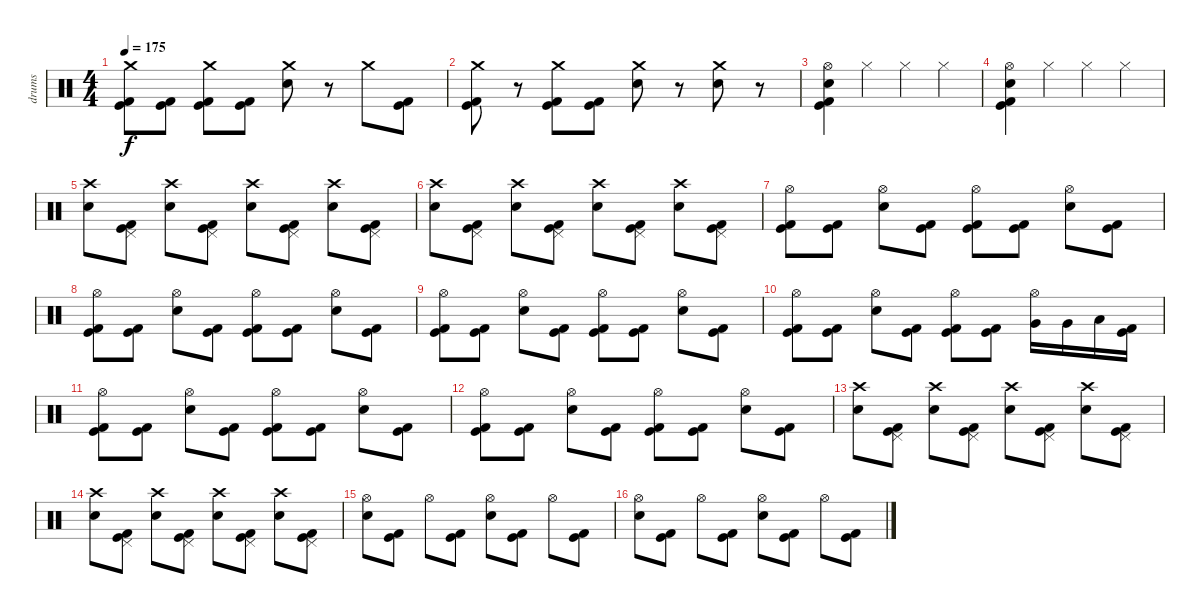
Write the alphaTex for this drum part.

\track ("drums" "drums") {instrument percussion}
\staff {score}
\articulation defaults
\ts (4 4)
\tempo 175
\clef neutral
\ks c
("Kick (hit)" "Kick (hit) 2" "Crash medium (hit)").8{dy f} ("Kick (hit)" "Kick (hit) 2").8 ("Kick (hit)" "Kick (hit) 2" "Crash medium (hit)").8 ("Kick (hit)" "Kick (hit) 2").8 ("Electric Snare (hit)" "Crash medium (hit)").8 r.8 "Crash medium (hit)".8 ("Kick (hit)" "Kick (hit) 2").8 |
("Kick (hit)" "Kick (hit) 2" "Crash medium (hit)").8 r.8 ("Kick (hit)" "Kick (hit) 2" "Crash medium (hit)").8 ("Kick (hit)" "Kick (hit) 2").8 ("Electric Snare (hit)" "Crash medium (hit)").8 r.8 ("Electric Snare (hit)" "Crash medium (hit)").8 r.8 |
("Kick (hit)" "Kick (hit) 2" "Electric Snare (hit)" "Hi-Hat (open)").4 "Hi-Hat (closed)".4 "Hi-Hat (closed)".4 "Hi-Hat (closed)".4 |
("Kick (hit)" "Kick (hit) 2" "Electric Snare (hit)" "Hi-Hat (open)").4 "Hi-Hat (closed)".4 "Hi-Hat (closed)".4 "Hi-Hat (closed)".4 |
("Electric Snare (hit)" "Crash high (hit)").8 ("Kick (hit)" "Kick (hit) 2" "Pedal Hi-Hat (hit)").8 ("Electric Snare (hit)" "Crash high (hit)").8 ("Kick (hit)" "Kick (hit) 2" "Pedal Hi-Hat (hit)").8 ("Electric Snare (hit)" "Crash high (hit)").8 ("Kick (hit)" "Kick (hit) 2" "Pedal Hi-Hat (hit)").8 ("Electric Snare (hit)" "Crash high (hit)").8 ("Kick (hit)" "Kick (hit) 2" "Pedal Hi-Hat (hit)").8 |
("Electric Snare (hit)" "Crash high (hit)").8 ("Kick (hit)" "Kick (hit) 2" "Pedal Hi-Hat (hit)").8 ("Electric Snare (hit)" "Crash high (hit)").8 ("Kick (hit)" "Kick (hit) 2" "Pedal Hi-Hat (hit)").8 ("Electric Snare (hit)" "Crash high (hit)").8 ("Kick (hit)" "Kick (hit) 2" "Pedal Hi-Hat (hit)").8 ("Electric Snare (hit)" "Crash high (hit)").8 ("Kick (hit)" "Kick (hit) 2" "Pedal Hi-Hat (hit)").8 |
("Kick (hit)" "Kick (hit) 2" "Hi-Hat (open)").8 ("Kick (hit)" "Kick (hit) 2").8 ("Electric Snare (hit)" "Hi-Hat (open)").8 ("Kick (hit)" "Kick (hit) 2").8 ("Kick (hit)" "Kick (hit) 2" "Hi-Hat (open)").8 ("Kick (hit)" "Kick (hit) 2").8 ("Electric Snare (hit)" "Hi-Hat (open)").8 ("Kick (hit)" "Kick (hit) 2").8 |
("Kick (hit)" "Kick (hit) 2" "Hi-Hat (open)").8 ("Kick (hit)" "Kick (hit) 2").8 ("Electric Snare (hit)" "Hi-Hat (open)").8 ("Kick (hit)" "Kick (hit) 2").8 ("Kick (hit)" "Kick (hit) 2" "Hi-Hat (open)").8 ("Kick (hit)" "Kick (hit) 2").8 ("Electric Snare (hit)" "Hi-Hat (open)").8 ("Kick (hit)" "Kick (hit) 2").8 |
("Kick (hit)" "Kick (hit) 2" "Hi-Hat (open)").8 ("Kick (hit)" "Kick (hit) 2").8 ("Electric Snare (hit)" "Hi-Hat (open)").8 ("Kick (hit)" "Kick (hit) 2").8 ("Kick (hit)" "Kick (hit) 2" "Hi-Hat (open)").8 ("Kick (hit)" "Kick (hit) 2").8 ("Electric Snare (hit)" "Hi-Hat (open)").8 ("Kick (hit)" "Kick (hit) 2").8 |
("Kick (hit)" "Kick (hit) 2" "Hi-Hat (open)").8 ("Kick (hit)" "Kick (hit) 2").8 ("Electric Snare (hit)" "Hi-Hat (open)").8 ("Kick (hit)" "Kick (hit) 2").8 ("Kick (hit)" "Kick (hit) 2" "Hi-Hat (open)").8 ("Kick (hit)" "Kick (hit) 2").8 ("Very Low Tom (hit)" "Hi-Hat (open)").16 "Very Low Tom (hit)".16 "Low Floor Tom (hit)".16 ("Kick (hit)" "Kick (hit) 2").16 |
("Kick (hit)" "Kick (hit) 2" "Hi-Hat (open)").8 ("Kick (hit)" "Kick (hit) 2").8 ("Electric Snare (hit)" "Hi-Hat (open)").8 ("Kick (hit)" "Kick (hit) 2").8 ("Kick (hit)" "Kick (hit) 2" "Hi-Hat (open)").8 ("Kick (hit)" "Kick (hit) 2").8 ("Electric Snare (hit)" "Hi-Hat (open)").8 ("Kick (hit)" "Kick (hit) 2").8 |
("Kick (hit)" "Kick (hit) 2" "Hi-Hat (open)").8 ("Kick (hit)" "Kick (hit) 2").8 ("Electric Snare (hit)" "Hi-Hat (open)").8 ("Kick (hit)" "Kick (hit) 2").8 ("Kick (hit)" "Kick (hit) 2" "Hi-Hat (open)").8 ("Kick (hit)" "Kick (hit) 2").8 ("Electric Snare (hit)" "Hi-Hat (open)").8 ("Kick (hit)" "Kick (hit) 2").8 |
("Electric Snare (hit)" "Crash high (hit)").8 ("Kick (hit)" "Kick (hit) 2" "Pedal Hi-Hat (hit)").8 ("Electric Snare (hit)" "Crash high (hit)").8 ("Kick (hit)" "Kick (hit) 2" "Pedal Hi-Hat (hit)").8 ("Electric Snare (hit)" "Crash high (hit)").8 ("Kick (hit)" "Kick (hit) 2" "Pedal Hi-Hat (hit)").8 ("Electric Snare (hit)" "Crash high (hit)").8 ("Kick (hit)" "Kick (hit) 2" "Pedal Hi-Hat (hit)").8 |
("Electric Snare (hit)" "Crash high (hit)").8 ("Kick (hit)" "Kick (hit) 2" "Pedal Hi-Hat (hit)").8 ("Electric Snare (hit)" "Crash high (hit)").8 ("Kick (hit)" "Kick (hit) 2" "Pedal Hi-Hat (hit)").8 ("Electric Snare (hit)" "Crash high (hit)").8 ("Kick (hit)" "Kick (hit) 2" "Pedal Hi-Hat (hit)").8 ("Electric Snare (hit)" "Crash high (hit)").8 ("Kick (hit)" "Kick (hit) 2" "Pedal Hi-Hat (hit)").8 |
("Electric Snare (hit)" "Hi-Hat (open)").8 ("Kick (hit)" "Kick (hit) 2").8 "Hi-Hat (open)".8 ("Kick (hit)" "Kick (hit) 2").8 ("Electric Snare (hit)" "Hi-Hat (open)").8 ("Kick (hit)" "Kick (hit) 2").8 "Hi-Hat (open)".8 ("Kick (hit)" "Kick (hit) 2").8 |
("Electric Snare (hit)" "Hi-Hat (open)").8 ("Kick (hit)" "Kick (hit) 2").8 "Hi-Hat (open)".8 ("Kick (hit)" "Kick (hit) 2").8 ("Electric Snare (hit)" "Hi-Hat (open)").8 ("Kick (hit)" "Kick (hit) 2").8 "Hi-Hat (open)".8 ("Kick (hit)" "Kick (hit) 2").8
